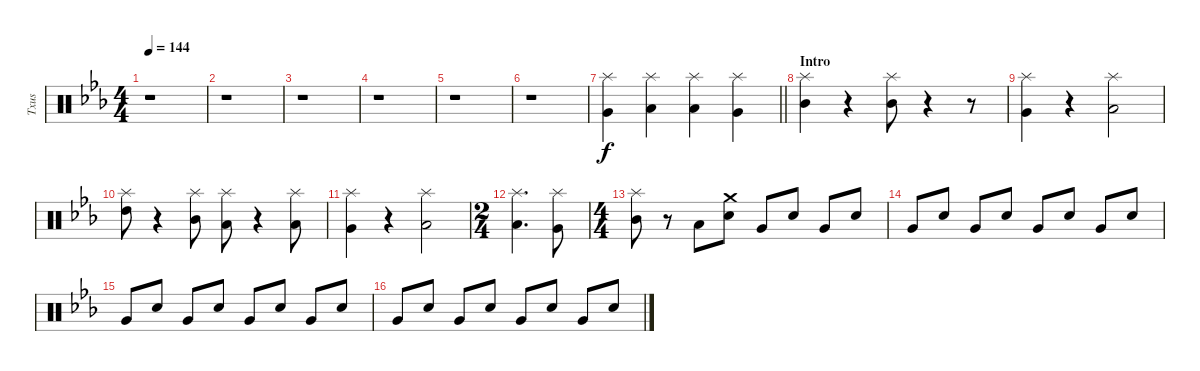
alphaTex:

\track ("Txus" "Txus") {instrument percussion}
\staff {score}
\articulation defaults
\ts (4 4)
\tempo 144
\clef neutral
\ks eb
r.1{dy f} |
r.1 |
r.1 |
r.1 |
r.1 |
r.1 |
\barLineRight lightlight
("Splash (hit)" "Very Low Tom (hit)").4 ("Splash (hit)" "Low Floor Tom (hit)").4 ("Splash (hit)" "Low Tom (hit)").4 ("Splash (hit)" "Very Low Tom (hit)").4 |
\section ("" "Intro")
("Splash (hit)" "Mid Tom (hit)").4 r.4 ("Splash (hit)" "Mid Tom (hit)").8 r.4 r.8 |
("Splash (hit)" "Very Low Tom (hit)").4 r.4 ("Splash (hit)" "Low Tom (hit)").2 |
("Splash (hit)" "High Tom (hit)").8 r.4 ("Splash (hit)" "Mid Tom (hit)").8 ("Splash (hit)" "Low Tom (hit)").8 r.4 ("Splash (hit)" "Low Tom (hit)").8 |
("Splash (hit)" "Very Low Tom (hit)").4 r.4 ("Splash (hit)" "Low Floor Tom (hit)").2 |
\ts (2 4)
("Splash (hit)" "Low Tom (hit)").4{d} ("Splash (hit)" "Very Low Tom (hit)").8 |
\ts (4 4)
("Splash (hit)" "Mid Tom (hit)").8 r.8 "Low Floor Tom (hit)".8 ("Electric Snare (hit)" "Crash medium (hit)").8 "Very Low Tom (hit)".8 "Electric Snare (hit)".8 "Very Low Tom (hit)".8 "Electric Snare (hit)".8 |
"Very Low Tom (hit)".8 "Electric Snare (hit)".8 "Very Low Tom (hit)".8 "Electric Snare (hit)".8 "Very Low Tom (hit)".8 "Electric Snare (hit)".8 "Very Low Tom (hit)".8 "Electric Snare (hit)".8 |
"Very Low Tom (hit)".8 "Electric Snare (hit)".8 "Very Low Tom (hit)".8 "Electric Snare (hit)".8 "Very Low Tom (hit)".8 "Electric Snare (hit)".8 "Very Low Tom (hit)".8 "Electric Snare (hit)".8 |
"Very Low Tom (hit)".8 "Electric Snare (hit)".8 "Very Low Tom (hit)".8 "Electric Snare (hit)".8 "Very Low Tom (hit)".8 "Electric Snare (hit)".8 "Very Low Tom (hit)".8 "Electric Snare (hit)".8
